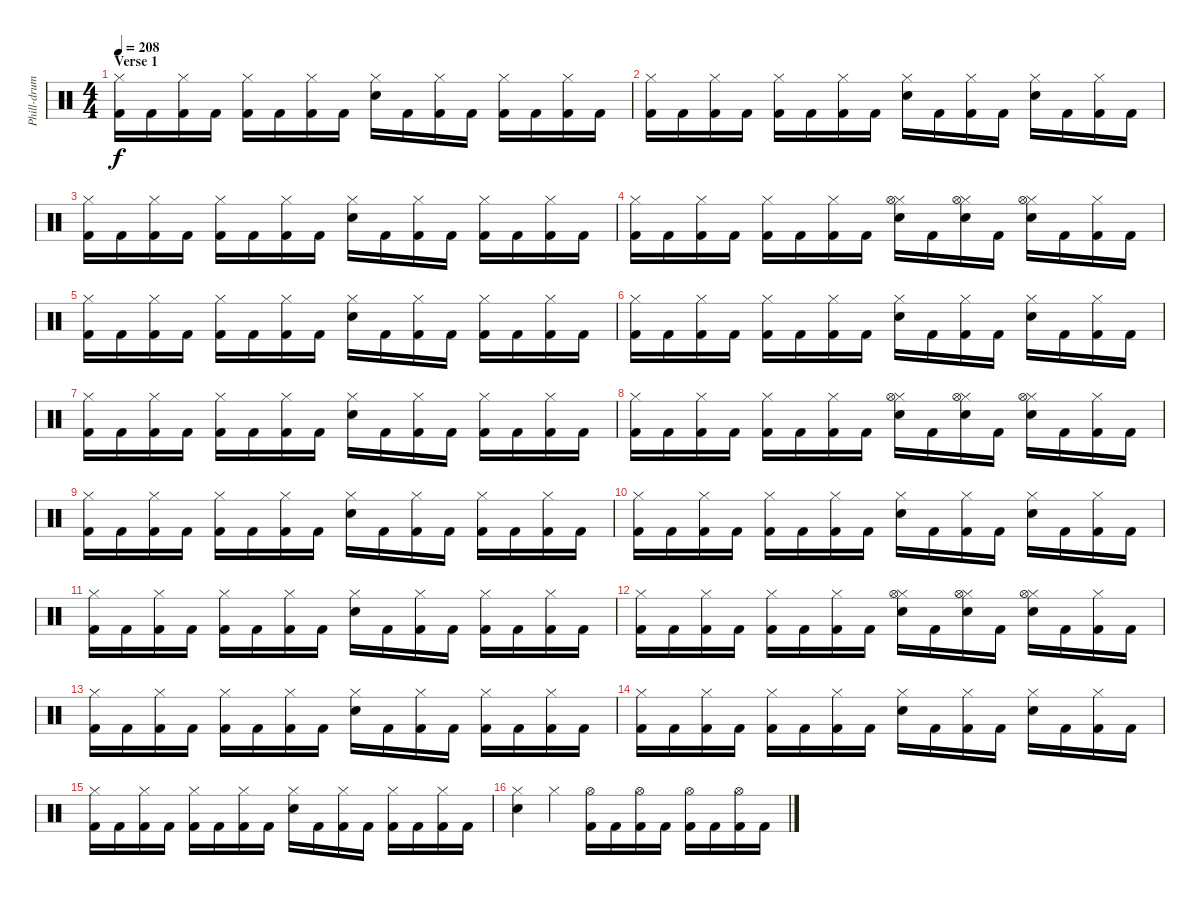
\track ("Phill-drum" "Phill-drum") {instrument percussion}
\staff {score}
\articulation defaults
\ts (4 4)
\section ("" "Verse 1")
\tempo 208
\clef neutral
\ks c
("Hi-Hat (closed)" "Kick (hit) 2").16{dy f} "Kick (hit) 2".16 ("Hi-Hat (closed)" "Kick (hit) 2").16 "Kick (hit) 2".16 ("Hi-Hat (closed)" "Kick (hit) 2").16 "Kick (hit) 2".16 ("Hi-Hat (closed)" "Kick (hit) 2").16 "Kick (hit) 2".16 ("Hi-Hat (closed)" "Electric Snare (hit)").16 "Kick (hit) 2".16 ("Hi-Hat (closed)" "Kick (hit) 2").16 "Kick (hit) 2".16 ("Hi-Hat (closed)" "Kick (hit) 2").16 "Kick (hit) 2".16 ("Hi-Hat (closed)" "Kick (hit) 2").16 "Kick (hit) 2".16 |
("Hi-Hat (closed)" "Kick (hit) 2").16 "Kick (hit) 2".16 ("Hi-Hat (closed)" "Kick (hit) 2").16 "Kick (hit) 2".16 ("Hi-Hat (closed)" "Kick (hit) 2").16 "Kick (hit) 2".16 ("Hi-Hat (closed)" "Kick (hit) 2").16 "Kick (hit) 2".16 ("Hi-Hat (closed)" "Electric Snare (hit)").16 "Kick (hit) 2".16 ("Hi-Hat (closed)" "Kick (hit) 2").16 "Kick (hit) 2".16 ("Hi-Hat (closed)" "Electric Snare (hit)").16 "Kick (hit) 2".16 ("Hi-Hat (closed)" "Kick (hit) 2").16 "Kick (hit) 2".16 |
("Hi-Hat (closed)" "Kick (hit) 2").16 "Kick (hit) 2".16 ("Hi-Hat (closed)" "Kick (hit) 2").16 "Kick (hit) 2".16 ("Hi-Hat (closed)" "Kick (hit) 2").16 "Kick (hit) 2".16 ("Hi-Hat (closed)" "Kick (hit) 2").16 "Kick (hit) 2".16 ("Hi-Hat (closed)" "Electric Snare (hit)").16 "Kick (hit) 2".16 ("Hi-Hat (closed)" "Kick (hit) 2").16 "Kick (hit) 2".16 ("Hi-Hat (closed)" "Kick (hit) 2").16 "Kick (hit) 2".16 ("Hi-Hat (closed)" "Kick (hit) 2").16 "Kick (hit) 2".16 |
("Hi-Hat (closed)" "Kick (hit) 2").16 "Kick (hit) 2".16 ("Hi-Hat (closed)" "Kick (hit) 2").16 "Kick (hit) 2".16 ("Hi-Hat (closed)" "Kick (hit) 2").16 "Kick (hit) 2".16 ("Hi-Hat (closed)" "Kick (hit) 2").16 "Kick (hit) 2".16 ("Hi-Hat (closed)" "Electric Snare (hit)" "Hi-Hat (open)").16 "Kick (hit) 2".16 ("Hi-Hat (closed)" "Electric Snare (hit)" "Hi-Hat (open)").16 "Kick (hit) 2".16 ("Hi-Hat (closed)" "Electric Snare (hit)" "Hi-Hat (open)").16 "Kick (hit) 2".16 ("Hi-Hat (closed)" "Kick (hit) 2").16 "Kick (hit) 2".16 |
("Hi-Hat (closed)" "Kick (hit) 2").16 "Kick (hit) 2".16 ("Hi-Hat (closed)" "Kick (hit) 2").16 "Kick (hit) 2".16 ("Hi-Hat (closed)" "Kick (hit) 2").16 "Kick (hit) 2".16 ("Hi-Hat (closed)" "Kick (hit) 2").16 "Kick (hit) 2".16 ("Hi-Hat (closed)" "Electric Snare (hit)").16 "Kick (hit) 2".16 ("Hi-Hat (closed)" "Kick (hit) 2").16 "Kick (hit) 2".16 ("Hi-Hat (closed)" "Kick (hit) 2").16 "Kick (hit) 2".16 ("Hi-Hat (closed)" "Kick (hit) 2").16 "Kick (hit) 2".16 |
("Hi-Hat (closed)" "Kick (hit) 2").16 "Kick (hit) 2".16 ("Hi-Hat (closed)" "Kick (hit) 2").16 "Kick (hit) 2".16 ("Hi-Hat (closed)" "Kick (hit) 2").16 "Kick (hit) 2".16 ("Hi-Hat (closed)" "Kick (hit) 2").16 "Kick (hit) 2".16 ("Hi-Hat (closed)" "Electric Snare (hit)").16 "Kick (hit) 2".16 ("Hi-Hat (closed)" "Kick (hit) 2").16 "Kick (hit) 2".16 ("Hi-Hat (closed)" "Electric Snare (hit)").16 "Kick (hit) 2".16 ("Hi-Hat (closed)" "Kick (hit) 2").16 "Kick (hit) 2".16 |
("Hi-Hat (closed)" "Kick (hit) 2").16 "Kick (hit) 2".16 ("Hi-Hat (closed)" "Kick (hit) 2").16 "Kick (hit) 2".16 ("Hi-Hat (closed)" "Kick (hit) 2").16 "Kick (hit) 2".16 ("Hi-Hat (closed)" "Kick (hit) 2").16 "Kick (hit) 2".16 ("Hi-Hat (closed)" "Electric Snare (hit)").16 "Kick (hit) 2".16 ("Hi-Hat (closed)" "Kick (hit) 2").16 "Kick (hit) 2".16 ("Hi-Hat (closed)" "Kick (hit) 2").16 "Kick (hit) 2".16 ("Hi-Hat (closed)" "Kick (hit) 2").16 "Kick (hit) 2".16 |
("Hi-Hat (closed)" "Kick (hit) 2").16 "Kick (hit) 2".16 ("Hi-Hat (closed)" "Kick (hit) 2").16 "Kick (hit) 2".16 ("Hi-Hat (closed)" "Kick (hit) 2").16 "Kick (hit) 2".16 ("Hi-Hat (closed)" "Kick (hit) 2").16 "Kick (hit) 2".16 ("Hi-Hat (closed)" "Electric Snare (hit)" "Hi-Hat (open)").16 "Kick (hit) 2".16 ("Hi-Hat (closed)" "Electric Snare (hit)" "Hi-Hat (open)").16 "Kick (hit) 2".16 ("Hi-Hat (closed)" "Electric Snare (hit)" "Hi-Hat (open)").16 "Kick (hit) 2".16 ("Hi-Hat (closed)" "Kick (hit) 2").16 "Kick (hit) 2".16 |
("Hi-Hat (closed)" "Kick (hit) 2").16 "Kick (hit) 2".16 ("Hi-Hat (closed)" "Kick (hit) 2").16 "Kick (hit) 2".16 ("Hi-Hat (closed)" "Kick (hit) 2").16 "Kick (hit) 2".16 ("Hi-Hat (closed)" "Kick (hit) 2").16 "Kick (hit) 2".16 ("Hi-Hat (closed)" "Electric Snare (hit)").16 "Kick (hit) 2".16 ("Hi-Hat (closed)" "Kick (hit) 2").16 "Kick (hit) 2".16 ("Hi-Hat (closed)" "Kick (hit) 2").16 "Kick (hit) 2".16 ("Hi-Hat (closed)" "Kick (hit) 2").16 "Kick (hit) 2".16 |
("Hi-Hat (closed)" "Kick (hit) 2").16 "Kick (hit) 2".16 ("Hi-Hat (closed)" "Kick (hit) 2").16 "Kick (hit) 2".16 ("Hi-Hat (closed)" "Kick (hit) 2").16 "Kick (hit) 2".16 ("Hi-Hat (closed)" "Kick (hit) 2").16 "Kick (hit) 2".16 ("Hi-Hat (closed)" "Electric Snare (hit)").16 "Kick (hit) 2".16 ("Hi-Hat (closed)" "Kick (hit) 2").16 "Kick (hit) 2".16 ("Hi-Hat (closed)" "Electric Snare (hit)").16 "Kick (hit) 2".16 ("Hi-Hat (closed)" "Kick (hit) 2").16 "Kick (hit) 2".16 |
("Hi-Hat (closed)" "Kick (hit) 2").16 "Kick (hit) 2".16 ("Hi-Hat (closed)" "Kick (hit) 2").16 "Kick (hit) 2".16 ("Hi-Hat (closed)" "Kick (hit) 2").16 "Kick (hit) 2".16 ("Hi-Hat (closed)" "Kick (hit) 2").16 "Kick (hit) 2".16 ("Hi-Hat (closed)" "Electric Snare (hit)").16 "Kick (hit) 2".16 ("Hi-Hat (closed)" "Kick (hit) 2").16 "Kick (hit) 2".16 ("Hi-Hat (closed)" "Kick (hit) 2").16 "Kick (hit) 2".16 ("Hi-Hat (closed)" "Kick (hit) 2").16 "Kick (hit) 2".16 |
("Hi-Hat (closed)" "Kick (hit) 2").16 "Kick (hit) 2".16 ("Hi-Hat (closed)" "Kick (hit) 2").16 "Kick (hit) 2".16 ("Hi-Hat (closed)" "Kick (hit) 2").16 "Kick (hit) 2".16 ("Hi-Hat (closed)" "Kick (hit) 2").16 "Kick (hit) 2".16 ("Hi-Hat (closed)" "Electric Snare (hit)" "Hi-Hat (open)").16 "Kick (hit) 2".16 ("Hi-Hat (closed)" "Electric Snare (hit)" "Hi-Hat (open)").16 "Kick (hit) 2".16 ("Hi-Hat (closed)" "Electric Snare (hit)" "Hi-Hat (open)").16 "Kick (hit) 2".16 ("Hi-Hat (closed)" "Kick (hit) 2").16 "Kick (hit) 2".16 |
("Hi-Hat (closed)" "Kick (hit) 2").16 "Kick (hit) 2".16 ("Hi-Hat (closed)" "Kick (hit) 2").16 "Kick (hit) 2".16 ("Hi-Hat (closed)" "Kick (hit) 2").16 "Kick (hit) 2".16 ("Hi-Hat (closed)" "Kick (hit) 2").16 "Kick (hit) 2".16 ("Hi-Hat (closed)" "Electric Snare (hit)").16 "Kick (hit) 2".16 ("Hi-Hat (closed)" "Kick (hit) 2").16 "Kick (hit) 2".16 ("Hi-Hat (closed)" "Kick (hit) 2").16 "Kick (hit) 2".16 ("Hi-Hat (closed)" "Kick (hit) 2").16 "Kick (hit) 2".16 |
("Hi-Hat (closed)" "Kick (hit) 2").16 "Kick (hit) 2".16 ("Hi-Hat (closed)" "Kick (hit) 2").16 "Kick (hit) 2".16 ("Hi-Hat (closed)" "Kick (hit) 2").16 "Kick (hit) 2".16 ("Hi-Hat (closed)" "Kick (hit) 2").16 "Kick (hit) 2".16 ("Hi-Hat (closed)" "Electric Snare (hit)").16 "Kick (hit) 2".16 ("Hi-Hat (closed)" "Kick (hit) 2").16 "Kick (hit) 2".16 ("Hi-Hat (closed)" "Electric Snare (hit)").16 "Kick (hit) 2".16 ("Hi-Hat (closed)" "Kick (hit) 2").16 "Kick (hit) 2".16 |
("Hi-Hat (closed)" "Kick (hit) 2").16 "Kick (hit) 2".16 ("Hi-Hat (closed)" "Kick (hit) 2").16 "Kick (hit) 2".16 ("Hi-Hat (closed)" "Kick (hit) 2").16 "Kick (hit) 2".16 ("Hi-Hat (closed)" "Kick (hit) 2").16 "Kick (hit) 2".16 ("Hi-Hat (closed)" "Electric Snare (hit)").16 "Kick (hit) 2".16 ("Hi-Hat (closed)" "Kick (hit) 2").16 "Kick (hit) 2".16 ("Hi-Hat (closed)" "Kick (hit) 2").16 "Kick (hit) 2".16 ("Hi-Hat (closed)" "Kick (hit) 2").16 "Kick (hit) 2".16 |
("Hi-Hat (closed)" "Electric Snare (hit)").4 "Hi-Hat (closed)".4 ("Hi-Hat (open)" "Kick (hit) 2").16 "Kick (hit) 2".16 ("Hi-Hat (open)" "Kick (hit) 2").16 "Kick (hit) 2".16 ("Hi-Hat (open)" "Kick (hit) 2").16 "Kick (hit) 2".16 ("Hi-Hat (open)" "Kick (hit) 2").16 "Kick (hit) 2".16
